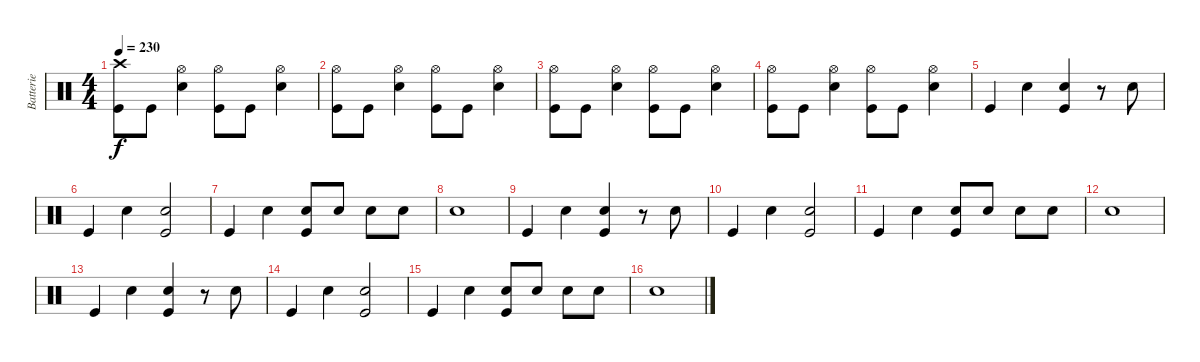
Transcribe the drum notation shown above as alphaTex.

\track ("Batterie" "Batterie") {instrument percussion}
\staff {score}
\articulation defaults
\ts (4 4)
\tempo 230
\clef neutral
\ks c
("Crash high (hit)" "Kick (hit)").8{dy f} "Kick (hit)".8 ("Hi-Hat (open)" "Snare (hit) 2").4 ("Hi-Hat (open)" "Kick (hit)").8 "Kick (hit)".8 ("Hi-Hat (open)" "Snare (hit) 2").4 |
("Hi-Hat (open)" "Kick (hit)").8 "Kick (hit)".8 ("Hi-Hat (open)" "Snare (hit) 2").4 ("Hi-Hat (open)" "Kick (hit)").8 "Kick (hit)".8 ("Hi-Hat (open)" "Snare (hit) 2").4 |
("Hi-Hat (open)" "Kick (hit)").8 "Kick (hit)".8 ("Hi-Hat (open)" "Snare (hit) 2").4 ("Hi-Hat (open)" "Kick (hit)").8 "Kick (hit)".8 ("Hi-Hat (open)" "Snare (hit) 2").4 |
("Hi-Hat (open)" "Kick (hit)").8 "Kick (hit)".8 ("Hi-Hat (open)" "Snare (hit) 2").4 ("Hi-Hat (open)" "Kick (hit)").8 "Kick (hit)".8 ("Hi-Hat (open)" "Snare (hit) 2").4 |
"Kick (hit)".4 "Snare (hit) 2".4 ("Snare (hit) 2" "Kick (hit)").4 r.8 "Snare (hit) 2".8 |
"Kick (hit)".4 "Snare (hit) 2".4 ("Snare (hit) 2" "Kick (hit)").2 |
"Kick (hit)".4 "Snare (hit) 2".4 ("Snare (hit) 2" "Kick (hit)").8 "Snare (hit) 2".8 "Snare (hit) 2".8 "Snare (hit) 2".8 |
"Snare (hit) 2".1 |
"Kick (hit)".4 "Snare (hit) 2".4 ("Snare (hit) 2" "Kick (hit)").4 r.8 "Snare (hit) 2".8 |
"Kick (hit)".4 "Snare (hit) 2".4 ("Snare (hit) 2" "Kick (hit)").2 |
"Kick (hit)".4 "Snare (hit) 2".4 ("Snare (hit) 2" "Kick (hit)").8 "Snare (hit) 2".8 "Snare (hit) 2".8 "Snare (hit) 2".8 |
"Snare (hit) 2".1 |
"Kick (hit)".4 "Snare (hit) 2".4 ("Snare (hit) 2" "Kick (hit)").4 r.8 "Snare (hit) 2".8 |
"Kick (hit)".4 "Snare (hit) 2".4 ("Snare (hit) 2" "Kick (hit)").2 |
"Kick (hit)".4 "Snare (hit) 2".4 ("Snare (hit) 2" "Kick (hit)").8 "Snare (hit) 2".8 "Snare (hit) 2".8 "Snare (hit) 2".8 |
"Snare (hit) 2".1
